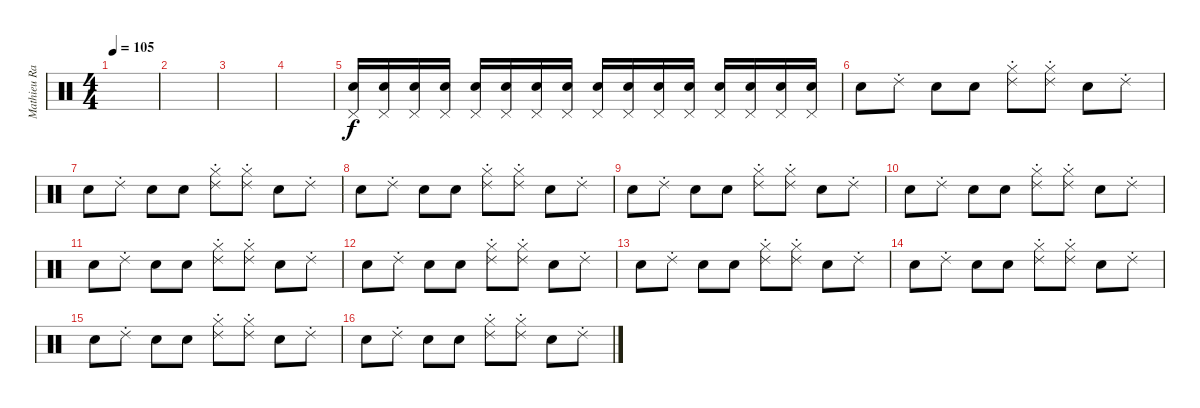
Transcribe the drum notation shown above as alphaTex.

\track ("Mathieu Rabaté (batterie)" "Mathieu Ra") {instrument percussion}
\staff {score}
\articulation defaults
\ts (4 4)
\tempo 105
\clef neutral
\ks c
|
|
|
|
("Snare (hit) 2" "Pedal Hi-Hat (hit)").16 ("Snare (hit) 2" "Pedal Hi-Hat (hit)").16 ("Snare (hit) 2" "Pedal Hi-Hat (hit)").16 ("Snare (hit) 2" "Pedal Hi-Hat (hit)").16 ("Snare (hit) 2" "Pedal Hi-Hat (hit)").16 ("Snare (hit) 2" "Pedal Hi-Hat (hit)").16 ("Snare (hit) 2" "Pedal Hi-Hat (hit)").16 ("Snare (hit) 2" "Pedal Hi-Hat (hit)").16 ("Snare (hit) 2" "Pedal Hi-Hat (hit)").16 ("Snare (hit) 2" "Pedal Hi-Hat (hit)").16 ("Snare (hit) 2" "Pedal Hi-Hat (hit)").16 ("Snare (hit) 2" "Pedal Hi-Hat (hit)").16 ("Snare (hit) 2" "Pedal Hi-Hat (hit)").16 ("Snare (hit) 2" "Pedal Hi-Hat (hit)").16 ("Snare (hit) 2" "Pedal Hi-Hat (hit)").16 ("Snare (hit) 2" "Pedal Hi-Hat (hit)").16 |
"Snare (hit) 2".8 "Ride (choke) 2".8 "Electric Snare (hit)".8 "Electric Snare (hit)".8 ("Hi-Hat (closed)" "Ride (choke) 2").8 ("Hi-Hat (closed)" "Ride (choke) 2").8 "Electric Snare (hit)".8 "Ride (choke) 2".8 |
"Snare (hit) 2".8 "Ride (choke) 2".8 "Electric Snare (hit)".8 "Electric Snare (hit)".8 ("Hi-Hat (closed)" "Ride (choke) 2").8 ("Hi-Hat (closed)" "Ride (choke) 2").8 "Electric Snare (hit)".8 "Ride (choke) 2".8 |
"Snare (hit) 2".8 "Ride (choke) 2".8 "Electric Snare (hit)".8 "Electric Snare (hit)".8 ("Hi-Hat (closed)" "Ride (choke) 2").8 ("Hi-Hat (closed)" "Ride (choke) 2").8 "Electric Snare (hit)".8 "Ride (choke) 2".8 |
"Snare (hit) 2".8 "Ride (choke) 2".8 "Electric Snare (hit)".8 "Electric Snare (hit)".8 ("Hi-Hat (closed)" "Ride (choke) 2").8 ("Hi-Hat (closed)" "Ride (choke) 2").8 "Electric Snare (hit)".8 "Ride (choke) 2".8 |
"Snare (hit) 2".8 "Ride (choke) 2".8 "Electric Snare (hit)".8 "Electric Snare (hit)".8 ("Hi-Hat (closed)" "Ride (choke) 2").8 ("Hi-Hat (closed)" "Ride (choke) 2").8 "Electric Snare (hit)".8 "Ride (choke) 2".8 |
"Snare (hit) 2".8 "Ride (choke) 2".8 "Electric Snare (hit)".8 "Electric Snare (hit)".8 ("Hi-Hat (closed)" "Ride (choke) 2").8 ("Hi-Hat (closed)" "Ride (choke) 2").8 "Electric Snare (hit)".8 "Ride (choke) 2".8 |
"Snare (hit) 2".8 "Ride (choke) 2".8 "Electric Snare (hit)".8 "Electric Snare (hit)".8 ("Hi-Hat (closed)" "Ride (choke) 2").8 ("Hi-Hat (closed)" "Ride (choke) 2").8 "Electric Snare (hit)".8 "Ride (choke) 2".8 |
"Snare (hit) 2".8 "Ride (choke) 2".8 "Electric Snare (hit)".8 "Electric Snare (hit)".8 ("Hi-Hat (closed)" "Ride (choke) 2").8 ("Hi-Hat (closed)" "Ride (choke) 2").8 "Electric Snare (hit)".8 "Ride (choke) 2".8 |
"Snare (hit) 2".8 "Ride (choke) 2".8 "Electric Snare (hit)".8 "Electric Snare (hit)".8 ("Hi-Hat (closed)" "Ride (choke) 2").8 ("Hi-Hat (closed)" "Ride (choke) 2").8 "Electric Snare (hit)".8 "Ride (choke) 2".8 |
"Snare (hit) 2".8 "Ride (choke) 2".8 "Electric Snare (hit)".8 "Electric Snare (hit)".8 ("Hi-Hat (closed)" "Ride (choke) 2").8 ("Hi-Hat (closed)" "Ride (choke) 2").8 "Electric Snare (hit)".8 "Ride (choke) 2".8 |
"Snare (hit) 2".8 "Ride (choke) 2".8 "Electric Snare (hit)".8 "Electric Snare (hit)".8 ("Hi-Hat (closed)" "Ride (choke) 2").8 ("Hi-Hat (closed)" "Ride (choke) 2").8 "Electric Snare (hit)".8 "Ride (choke) 2".8
